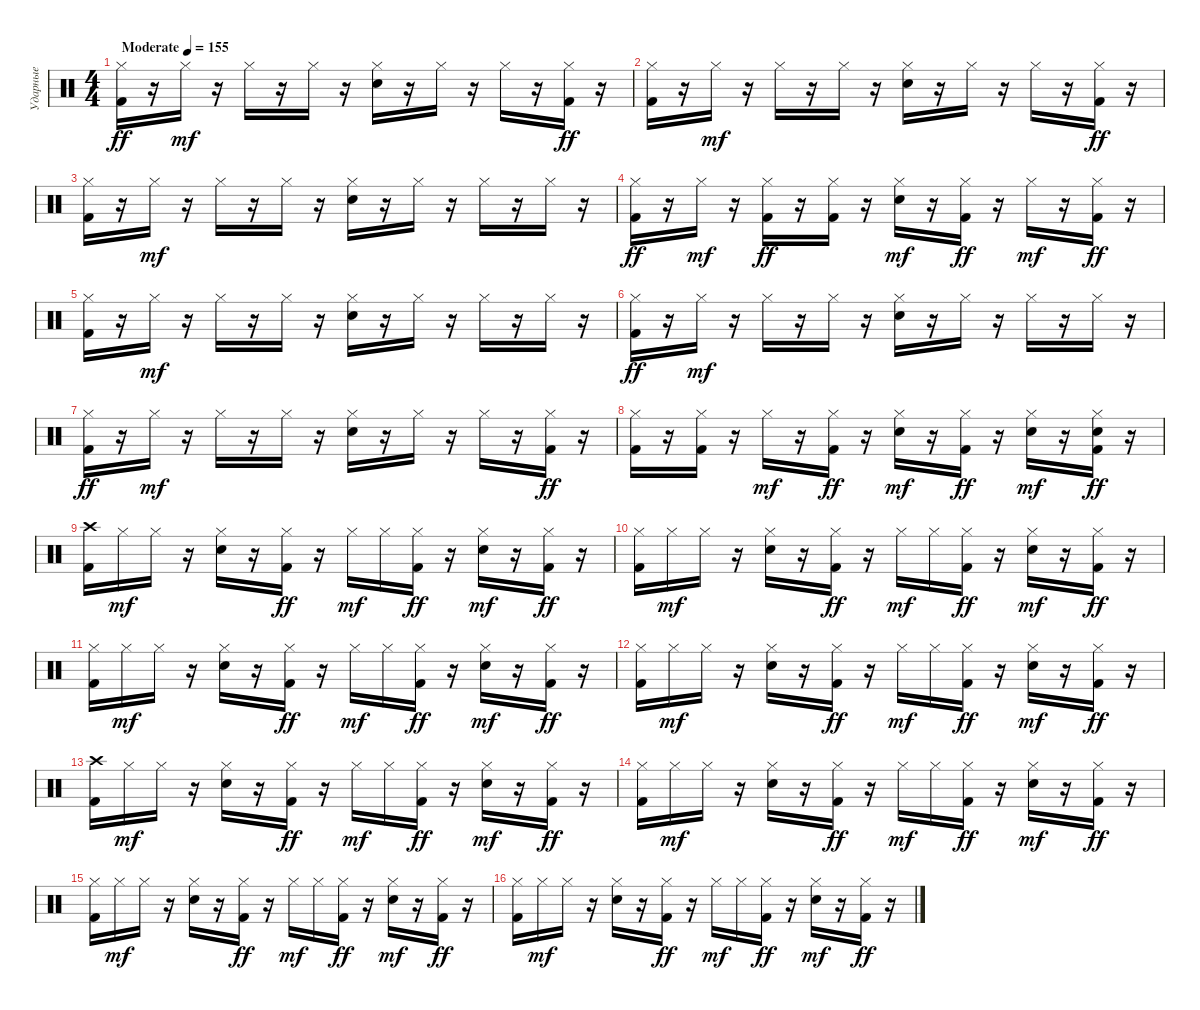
\track ("Ударные" "Ударные") {instrument percussion}
\staff {score}
\articulation defaults
\ts (4 4)
\tempo (155 "Moderate")
\clef neutral
\ks c
("Hi-Hat (closed)" "Kick (hit) 2").16{dy ff} r.16 "Hi-Hat (closed)".16{dy mf} r.16 "Hi-Hat (closed)".16 r.16 "Hi-Hat (closed)".16 r.16 ("Hi-Hat (closed)" "Hand Clap (hit)").16 r.16 "Hi-Hat (closed)".16 r.16 "Hi-Hat (closed)".16 r.16 ("Hi-Hat (closed)" "Kick (hit) 2").16{dy ff} r.16 |
("Hi-Hat (closed)" "Kick (hit) 2").16 r.16 "Hi-Hat (closed)".16{dy mf} r.16 "Hi-Hat (closed)".16 r.16 "Hi-Hat (closed)".16 r.16 ("Hi-Hat (closed)" "Hand Clap (hit)").16 r.16 "Hi-Hat (closed)".16 r.16 "Hi-Hat (closed)".16 r.16 ("Hi-Hat (closed)" "Kick (hit) 2").16{dy ff} r.16 |
("Hi-Hat (closed)" "Kick (hit) 2").16 r.16 "Hi-Hat (closed)".16{dy mf} r.16 "Hi-Hat (closed)".16 r.16 "Hi-Hat (closed)".16 r.16 ("Hi-Hat (closed)" "Hand Clap (hit)").16 r.16 "Hi-Hat (closed)".16 r.16 "Hi-Hat (closed)".16 r.16 "Hi-Hat (closed)".16 r.16 |
("Hi-Hat (closed)" "Kick (hit) 2").16{dy ff} r.16 "Hi-Hat (closed)".16{dy mf} r.16 ("Hi-Hat (closed)" "Kick (hit) 2").16{dy ff} r.16 ("Hi-Hat (closed)" "Kick (hit) 2").16 r.16 ("Hi-Hat (closed)" "Hand Clap (hit)").16{dy mf} r.16 ("Hi-Hat (closed)" "Kick (hit) 2").16{dy ff} r.16 "Hi-Hat (closed)".16{dy mf} r.16 ("Hi-Hat (closed)" "Kick (hit) 2").16{dy ff} r.16 |
("Hi-Hat (closed)" "Kick (hit) 2").16 r.16 "Hi-Hat (closed)".16{dy mf} r.16 "Hi-Hat (closed)".16 r.16 "Hi-Hat (closed)".16 r.16 ("Hi-Hat (closed)" "Hand Clap (hit)").16 r.16 "Hi-Hat (closed)".16 r.16 "Hi-Hat (closed)".16 r.16 "Hi-Hat (closed)".16 r.16 |
("Hi-Hat (closed)" "Kick (hit) 2").16{dy ff} r.16 "Hi-Hat (closed)".16{dy mf} r.16 "Hi-Hat (closed)".16 r.16 "Hi-Hat (closed)".16 r.16 ("Hi-Hat (closed)" "Hand Clap (hit)").16 r.16 "Hi-Hat (closed)".16 r.16 "Hi-Hat (closed)".16 r.16 "Hi-Hat (closed)".16 r.16 |
("Hi-Hat (closed)" "Kick (hit) 2").16{dy ff} r.16 "Hi-Hat (closed)".16{dy mf} r.16 "Hi-Hat (closed)".16 r.16 "Hi-Hat (closed)".16 r.16 ("Hi-Hat (closed)" "Hand Clap (hit)").16 r.16 "Hi-Hat (closed)".16 r.16 "Hi-Hat (closed)".16 r.16 ("Hi-Hat (closed)" "Kick (hit) 2").16{dy ff} r.16 |
("Hi-Hat (closed)" "Kick (hit) 2").16 r.16 ("Hi-Hat (closed)" "Kick (hit) 2").16 r.16 "Hi-Hat (closed)".16{dy mf} r.16 ("Hi-Hat (closed)" "Kick (hit) 2").16{dy ff} r.16 ("Hi-Hat (closed)" "Hand Clap (hit)").16{dy mf} r.16 ("Hi-Hat (closed)" "Kick (hit) 2").16{dy ff} r.16 ("Hi-Hat (closed)" "Electric Snare (hit)").16{dy mf} r.16 ("Hi-Hat (closed)" "Electric Snare (hit)" "Kick (hit) 2").16{dy ff} r.16 |
("Crash high (hit)" "Kick (hit) 2").16 "Hi-Hat (closed)".16{dy mf} "Hi-Hat (closed)".16 r.16 ("Hi-Hat (closed)" "Electric Snare (hit)").16 r.16 ("Hi-Hat (closed)" "Kick (hit) 2").16{dy ff} r.16 "Hi-Hat (closed)".16{dy mf} "Hi-Hat (closed)".16 ("Hi-Hat (closed)" "Kick (hit) 2").16{dy ff} r.16 ("Hi-Hat (closed)" "Electric Snare (hit)").16{dy mf} r.16 ("Hi-Hat (closed)" "Kick (hit) 2").16{dy ff} r.16 |
("Hi-Hat (closed)" "Kick (hit) 2").16 "Hi-Hat (closed)".16{dy mf} "Hi-Hat (closed)".16 r.16 ("Hi-Hat (closed)" "Electric Snare (hit)").16 r.16 ("Hi-Hat (closed)" "Kick (hit) 2").16{dy ff} r.16 "Hi-Hat (closed)".16{dy mf} "Hi-Hat (closed)".16 ("Hi-Hat (closed)" "Kick (hit) 2").16{dy ff} r.16 ("Hi-Hat (closed)" "Electric Snare (hit)").16{dy mf} r.16 ("Hi-Hat (closed)" "Kick (hit) 2").16{dy ff} r.16 |
("Hi-Hat (closed)" "Kick (hit) 2").16 "Hi-Hat (closed)".16{dy mf} "Hi-Hat (closed)".16 r.16 ("Hi-Hat (closed)" "Electric Snare (hit)").16 r.16 ("Hi-Hat (closed)" "Kick (hit) 2").16{dy ff} r.16 "Hi-Hat (closed)".16{dy mf} "Hi-Hat (closed)".16 ("Hi-Hat (closed)" "Kick (hit) 2").16{dy ff} r.16 ("Hi-Hat (closed)" "Electric Snare (hit)").16{dy mf} r.16 ("Hi-Hat (closed)" "Kick (hit) 2").16{dy ff} r.16 |
("Hi-Hat (closed)" "Kick (hit) 2").16 "Hi-Hat (closed)".16{dy mf} "Hi-Hat (closed)".16 r.16 ("Hi-Hat (closed)" "Electric Snare (hit)").16 r.16 ("Hi-Hat (closed)" "Kick (hit) 2").16{dy ff} r.16 "Hi-Hat (closed)".16{dy mf} "Hi-Hat (closed)".16 ("Hi-Hat (closed)" "Kick (hit) 2").16{dy ff} r.16 ("Hi-Hat (closed)" "Electric Snare (hit)").16{dy mf} r.16 ("Hi-Hat (closed)" "Kick (hit) 2").16{dy ff} r.16 |
("Crash high (hit)" "Kick (hit) 2").16 "Hi-Hat (closed)".16{dy mf} "Hi-Hat (closed)".16 r.16 ("Hi-Hat (closed)" "Electric Snare (hit)").16 r.16 ("Hi-Hat (closed)" "Kick (hit) 2").16{dy ff} r.16 "Hi-Hat (closed)".16{dy mf} "Hi-Hat (closed)".16 ("Hi-Hat (closed)" "Kick (hit) 2").16{dy ff} r.16 ("Hi-Hat (closed)" "Electric Snare (hit)").16{dy mf} r.16 ("Hi-Hat (closed)" "Kick (hit) 2").16{dy ff} r.16 |
("Hi-Hat (closed)" "Kick (hit) 2").16 "Hi-Hat (closed)".16{dy mf} "Hi-Hat (closed)".16 r.16 ("Hi-Hat (closed)" "Electric Snare (hit)").16 r.16 ("Hi-Hat (closed)" "Kick (hit) 2").16{dy ff} r.16 "Hi-Hat (closed)".16{dy mf} "Hi-Hat (closed)".16 ("Hi-Hat (closed)" "Kick (hit) 2").16{dy ff} r.16 ("Hi-Hat (closed)" "Electric Snare (hit)").16{dy mf} r.16 ("Hi-Hat (closed)" "Kick (hit) 2").16{dy ff} r.16 |
("Hi-Hat (closed)" "Kick (hit) 2").16 "Hi-Hat (closed)".16{dy mf} "Hi-Hat (closed)".16 r.16 ("Hi-Hat (closed)" "Electric Snare (hit)").16 r.16 ("Hi-Hat (closed)" "Kick (hit) 2").16{dy ff} r.16 "Hi-Hat (closed)".16{dy mf} "Hi-Hat (closed)".16 ("Hi-Hat (closed)" "Kick (hit) 2").16{dy ff} r.16 ("Hi-Hat (closed)" "Electric Snare (hit)").16{dy mf} r.16 ("Hi-Hat (closed)" "Kick (hit) 2").16{dy ff} r.16 |
("Hi-Hat (closed)" "Kick (hit) 2").16 "Hi-Hat (closed)".16{dy mf} "Hi-Hat (closed)".16 r.16 ("Hi-Hat (closed)" "Electric Snare (hit)").16 r.16 ("Hi-Hat (closed)" "Kick (hit) 2").16{dy ff} r.16 "Hi-Hat (closed)".16{dy mf} "Hi-Hat (closed)".16 ("Hi-Hat (closed)" "Kick (hit) 2").16{dy ff} r.16 ("Hi-Hat (closed)" "Electric Snare (hit)").16{dy mf} r.16 ("Hi-Hat (closed)" "Kick (hit) 2").16{dy ff} r.16
